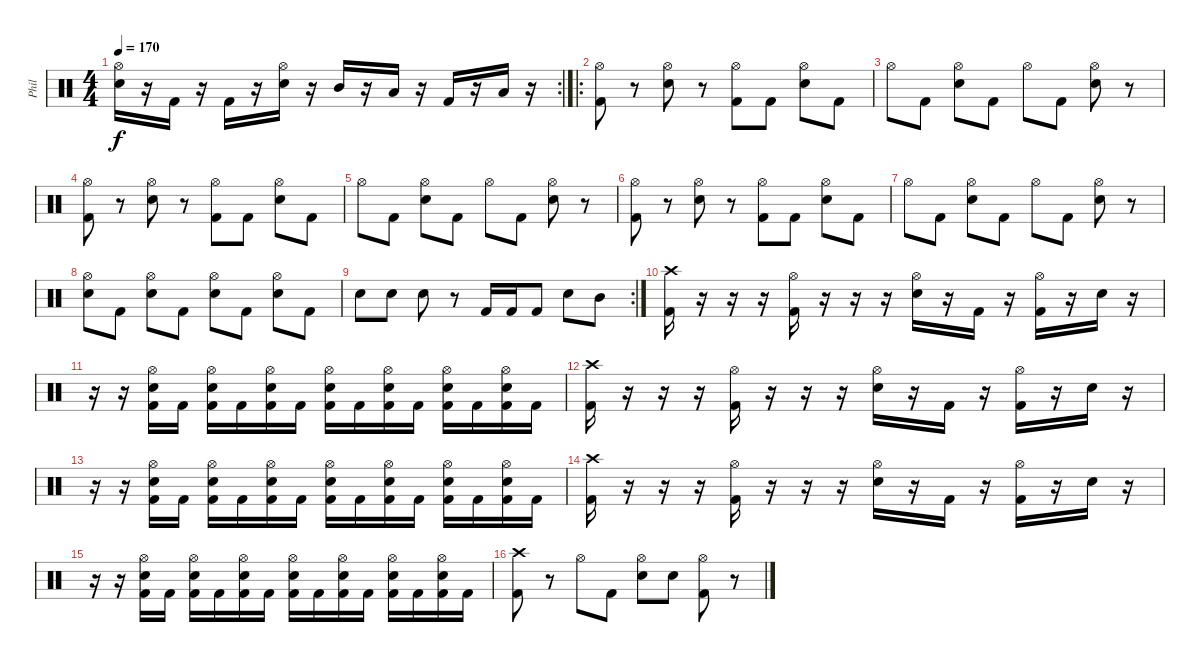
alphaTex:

\track ("Phil" "Phil") {instrument percussion}
\staff {score}
\articulation defaults
\rc 2
\ts (4 4)
\tempo 170
\clef neutral
\ks c
("Hi-Hat (open)" "Electric Snare (hit)").16{dy f} r.16 "Kick (hit) 2".16 r.16 "Kick (hit) 2".16 r.16 ("Hi-Hat (open)" "Electric Snare (hit)").16 r.16 "Mid Tom (hit)".16 r.16 "Low Tom (hit)".16 r.16 "Kick (hit) 2".16 r.16 "Low Tom (hit)".16 r.16 |
\ro
("Hi-Hat (open)" "Kick (hit) 2").8 r.8 ("Hi-Hat (open)" "Electric Snare (hit)").8 r.8 ("Hi-Hat (open)" "Kick (hit) 2").8 "Kick (hit) 2".8 ("Hi-Hat (open)" "Electric Snare (hit)").8 "Kick (hit) 2".8 |
"Hi-Hat (open)".8 "Kick (hit) 2".8 ("Hi-Hat (open)" "Electric Snare (hit)").8 "Kick (hit) 2".8 "Hi-Hat (open)".8 "Kick (hit) 2".8 ("Hi-Hat (open)" "Electric Snare (hit)").8 r.8 |
("Hi-Hat (open)" "Kick (hit) 2").8 r.8 ("Hi-Hat (open)" "Electric Snare (hit)").8 r.8 ("Hi-Hat (open)" "Kick (hit) 2").8 "Kick (hit) 2".8 ("Hi-Hat (open)" "Electric Snare (hit)").8 "Kick (hit) 2".8 |
"Hi-Hat (open)".8 "Kick (hit) 2".8 ("Hi-Hat (open)" "Electric Snare (hit)").8 "Kick (hit) 2".8 "Hi-Hat (open)".8 "Kick (hit) 2".8 ("Hi-Hat (open)" "Electric Snare (hit)").8 r.8 |
("Hi-Hat (open)" "Kick (hit) 2").8 r.8 ("Hi-Hat (open)" "Electric Snare (hit)").8 r.8 ("Hi-Hat (open)" "Kick (hit) 2").8 "Kick (hit) 2".8 ("Hi-Hat (open)" "Electric Snare (hit)").8 "Kick (hit) 2".8 |
"Hi-Hat (open)".8 "Kick (hit) 2".8 ("Hi-Hat (open)" "Electric Snare (hit)").8 "Kick (hit) 2".8 "Hi-Hat (open)".8 "Kick (hit) 2".8 ("Hi-Hat (open)" "Electric Snare (hit)").8 r.8 |
("Hi-Hat (open)" "Electric Snare (hit)").8 "Kick (hit) 2".8 ("Hi-Hat (open)" "Electric Snare (hit)").8 "Kick (hit) 2".8 ("Hi-Hat (open)" "Electric Snare (hit)").8 "Kick (hit) 2".8 ("Hi-Hat (open)" "Electric Snare (hit)").8 "Kick (hit) 2".8 |
\rc 2 "Electric Snare (hit)".8 "Electric Snare (hit)".8 "Electric Snare (hit)".8
r.8 "Kick (hit) 2".16 "Kick (hit) 2".16 "Kick (hit) 2".8 "Electric Snare (hit)".8 "Mid Tom (hit)".8 |
("Crash high (hit)" "Kick (hit) 2").16 r.16 r.16 r.16 ("Hi-Hat (open)" "Kick (hit) 2").16 r.16 r.16 r.16 ("Hi-Hat (open)" "Electric Snare (hit)").16 r.16 "Kick (hit) 2".16 r.16 ("Hi-Hat (open)" "Kick (hit) 2").16 r.16 "Electric Snare (hit)".16 r.16 |
r.16 r.16 ("Hi-Hat (open)" "Electric Snare (hit)" "Kick (hit) 2").16 "Kick (hit) 2".16 ("Hi-Hat (open)" "Electric Snare (hit)" "Kick (hit) 2").16 "Kick (hit) 2".16 ("Hi-Hat (open)" "Electric Snare (hit)" "Kick (hit) 2").16 "Kick (hit) 2".16 ("Hi-Hat (open)" "Electric Snare (hit)" "Kick (hit) 2").16 "Kick (hit) 2".16 ("Hi-Hat (open)" "Electric Snare (hit)" "Kick (hit) 2").16 "Kick (hit) 2".16 ("Hi-Hat (open)" "Electric Snare (hit)" "Kick (hit) 2").16 "Kick (hit) 2".16 ("Hi-Hat (open)" "Electric Snare (hit)" "Kick (hit) 2").16 "Kick (hit) 2".16 |
("Crash high (hit)" "Kick (hit) 2").16 r.16 r.16 r.16 ("Hi-Hat (open)" "Kick (hit) 2").16 r.16 r.16 r.16 ("Hi-Hat (open)" "Electric Snare (hit)").16 r.16 "Kick (hit) 2".16 r.16 ("Hi-Hat (open)" "Kick (hit) 2").16 r.16 "Electric Snare (hit)".16 r.16 |
r.16 r.16 ("Hi-Hat (open)" "Electric Snare (hit)" "Kick (hit) 2").16 "Kick (hit) 2".16 ("Hi-Hat (open)" "Electric Snare (hit)" "Kick (hit) 2").16 "Kick (hit) 2".16 ("Hi-Hat (open)" "Electric Snare (hit)" "Kick (hit) 2").16 "Kick (hit) 2".16 ("Hi-Hat (open)" "Electric Snare (hit)" "Kick (hit) 2").16 "Kick (hit) 2".16 ("Hi-Hat (open)" "Electric Snare (hit)" "Kick (hit) 2").16 "Kick (hit) 2".16 ("Hi-Hat (open)" "Electric Snare (hit)" "Kick (hit) 2").16 "Kick (hit) 2".16 ("Hi-Hat (open)" "Electric Snare (hit)" "Kick (hit) 2").16 "Kick (hit) 2".16 |
("Crash high (hit)" "Kick (hit) 2").16 r.16 r.16 r.16 ("Hi-Hat (open)" "Kick (hit) 2").16 r.16 r.16 r.16 ("Hi-Hat (open)" "Electric Snare (hit)").16 r.16 "Kick (hit) 2".16 r.16 ("Hi-Hat (open)" "Kick (hit) 2").16 r.16 "Electric Snare (hit)".16 r.16 |
r.16 r.16 ("Hi-Hat (open)" "Electric Snare (hit)" "Kick (hit) 2").16 "Kick (hit) 2".16 ("Hi-Hat (open)" "Electric Snare (hit)" "Kick (hit) 2").16 "Kick (hit) 2".16 ("Hi-Hat (open)" "Electric Snare (hit)" "Kick (hit) 2").16 "Kick (hit) 2".16 ("Hi-Hat (open)" "Electric Snare (hit)" "Kick (hit) 2").16 "Kick (hit) 2".16 ("Hi-Hat (open)" "Electric Snare (hit)" "Kick (hit) 2").16 "Kick (hit) 2".16 ("Hi-Hat (open)" "Electric Snare (hit)" "Kick (hit) 2").16 "Kick (hit) 2".16 ("Hi-Hat (open)" "Electric Snare (hit)" "Kick (hit) 2").16 "Kick (hit) 2".16 |
("Crash high (hit)" "Kick (hit) 2").8 r.8 "Hi-Hat (open)".8 "Kick (hit) 2".8 ("Hi-Hat (open)" "Electric Snare (hit)").8 "Electric Snare (hit)".8 ("Hi-Hat (open)" "Kick (hit) 2").8 r.8
